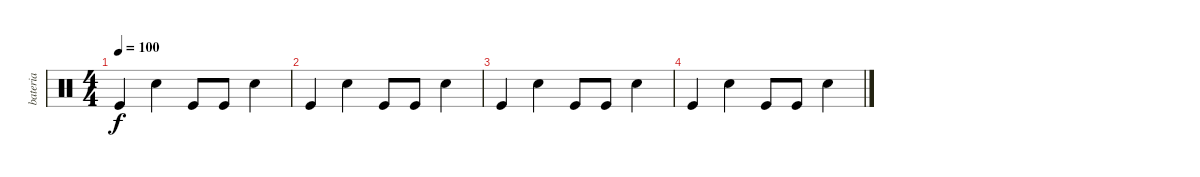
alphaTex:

\track ("bateria" "bateria") {instrument percussion}
\staff {score}
\articulation defaults
\ts (4 4)
\tempo 100
\clef neutral
\ks c "Kick (hit)".4{dy f} "Snare (hit) 2".4 "Kick (hit)".8 "Kick (hit)".8 "Snare (hit) 2".4
|
"Kick (hit)".4 "Snare (hit) 2".4 "Kick (hit)".8 "Kick (hit)".8 "Snare (hit) 2".4 |
"Kick (hit)".4 "Snare (hit) 2".4 "Kick (hit)".8 "Kick (hit)".8 "Snare (hit) 2".4 |
"Kick (hit)".4 "Snare (hit) 2".4 "Kick (hit)".8 "Kick (hit)".8 "Snare (hit) 2".4
